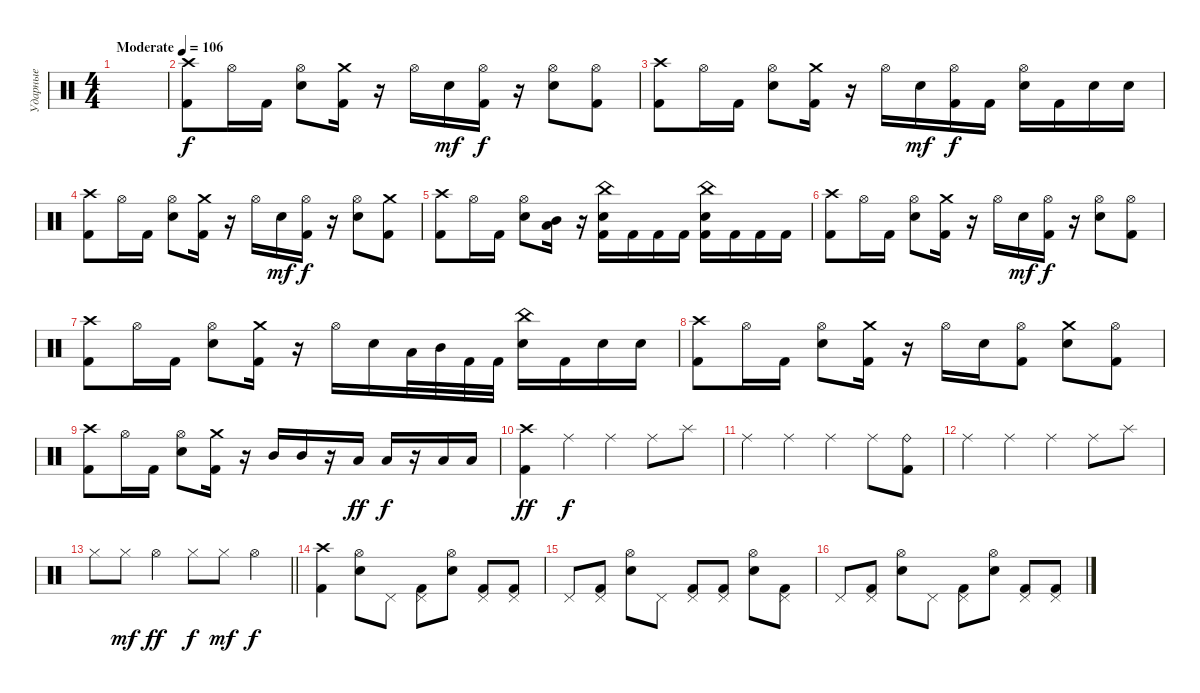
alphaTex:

\track ("Ударные" "Ударные") {instrument percussion}
\staff {score}
\articulation defaults
\ts (4 4)
\tempo (106 "Moderate")
\clef neutral
\ks c
|
("Crash high (hit)" "Kick (hit) 2").8 "Hi-Hat (open)".16 "Kick (hit) 2".16 ("Hi-Hat (open)" "Electric Snare (hit)").8 ("Crash medium (hit)" "Kick (hit) 2").16 r.16 "Hi-Hat (open)".16 "Electric Snare (hit)".16{dy mf} ("Hi-Hat (open)" "Kick (hit) 2").16{dy f} r.16 ("Hi-Hat (open)" "Electric Snare (hit)").8 ("Hi-Hat (open)" "Kick (hit) 2").8 |
("Crash high (hit)" "Kick (hit) 2").8 "Hi-Hat (open)".16 "Kick (hit) 2".16 ("Hi-Hat (open)" "Electric Snare (hit)").8 ("Crash medium (hit)" "Kick (hit) 2").16 r.16 "Hi-Hat (open)".16 "Electric Snare (hit)".16{dy mf} ("Hi-Hat (open)" "Kick (hit) 2").16{dy f} "Kick (hit) 2".16 ("Hi-Hat (open)" "Electric Snare (hit)").16 "Kick (hit) 2".16 "Electric Snare (hit)".16 "Electric Snare (hit)".16 |
("Crash high (hit)" "Kick (hit) 2").8 "Hi-Hat (open)".16 "Kick (hit) 2".16 ("Hi-Hat (open)" "Electric Snare (hit)").8 ("Crash medium (hit)" "Kick (hit) 2").16 r.16 "Hi-Hat (open)".16 "Electric Snare (hit)".16{dy mf} ("Hi-Hat (open)" "Kick (hit) 2").16{dy f} r.16 ("Hi-Hat (open)" "Electric Snare (hit)").8 ("Crash medium (hit)" "Kick (hit) 2").8 |
("Crash high (hit)" "Kick (hit) 2").8 "Hi-Hat (open)".16 "Kick (hit) 2".16 ("Hi-Hat (open)" "Electric Snare (hit)").8 ("Mid Tom (hit)" "Low Floor Tom (hit)").16 r.16 ("China (hit)" "Electric Snare (hit)" "Kick (hit) 2").16 "Kick (hit) 2".16 "Kick (hit) 2".16 "Kick (hit) 2".16 ("China (hit)" "Electric Snare (hit)" "Kick (hit) 2").16 "Kick (hit) 2".16 "Kick (hit) 2".16 "Kick (hit) 2".16 |
("Crash high (hit)" "Kick (hit) 2").8 "Hi-Hat (open)".16 "Kick (hit) 2".16 ("Hi-Hat (open)" "Electric Snare (hit)").8 ("Crash medium (hit)" "Kick (hit) 2").16 r.16 "Hi-Hat (open)".16 "Electric Snare (hit)".16{dy mf} ("Hi-Hat (open)" "Kick (hit) 2").16{dy f} r.16 ("Hi-Hat (open)" "Electric Snare (hit)").8 ("Hi-Hat (open)" "Kick (hit) 2").8 |
("Crash high (hit)" "Kick (hit) 2").8 "Hi-Hat (open)".16 "Kick (hit) 2".16 ("Hi-Hat (open)" "Electric Snare (hit)").8 ("Crash medium (hit)" "Kick (hit) 2").16 r.16 "Hi-Hat (open)".16 "Electric Snare (hit)".16 "Low Floor Tom (hit)".32 "Mid Tom (hit)".32 "Kick (hit) 2".32 "Kick (hit) 2".32 ("China (hit)" "Electric Snare (hit)").16 "Kick (hit) 2".16 "Electric Snare (hit)".16 "Electric Snare (hit)".16 |
("Crash high (hit)" "Kick (hit) 2").8 "Hi-Hat (open)".16 "Kick (hit) 2".16 ("Hi-Hat (open)" "Electric Snare (hit)").8 ("Crash medium (hit)" "Kick (hit) 2").16 r.16 "Hi-Hat (open)".16 "Electric Snare (hit)".16 ("Hi-Hat (open)" "Kick (hit) 2").8 ("Crash medium (hit)" "Electric Snare (hit)").8 ("Hi-Hat (open)" "Kick (hit) 2").8 |
("Crash high (hit)" "Kick (hit) 2").8 "Hi-Hat (open)".16 "Kick (hit) 2".16 ("Hi-Hat (open)" "Electric Snare (hit)").8 ("Crash medium (hit)" "Kick (hit) 2").16 r.16 "Mid Tom (hit)".16 "Mid Tom (hit)".16 r.16 "Low Tom (hit)".16{dy ff} "Low Tom (hit)".16{dy f} r.16 "Low Floor Tom (hit)".16 "Low Floor Tom (hit)".16 |
("Crash high (hit)" "Kick (hit) 2").4{dy ff} "Ride (middle)".4{dy f} "Ride (middle)".4 "Ride (middle)".8 "Splash (hit)".8 |
"Ride (middle)".4 "Ride (middle)".4 "Ride (middle)".4 "Ride (middle)".8 ("Ride (bell)" "Kick (hit) 2").8 |
"Ride (middle)".4 "Ride (middle)".4 "Ride (middle)".4 "Ride (middle)".8 "Splash (hit)".8 |
\barLineRight lightlight "Hi-Hat (closed)".8 "Hi-Hat (closed)".8{dy mf} "Hi-Hat (open)".4{dy ff} "Hi-Hat (closed)".8{dy f} "Hi-Hat (closed)".8{dy mf} "Hi-Hat (open)".4{dy f}
|
("Crash high (hit)" "Kick (hit) 2").4 ("Hi-Hat (open)" "Electric Snare (hit)").8 "Pedal Hi-Hat (hit)".8 ("Pedal Hi-Hat (hit)" "Kick (hit) 2").8 ("Hi-Hat (open)" "Electric Snare (hit)").8 ("Pedal Hi-Hat (hit)" "Kick (hit) 2").8 ("Pedal Hi-Hat (hit)" "Kick (hit) 2").8 |
"Pedal Hi-Hat (hit)".8 ("Pedal Hi-Hat (hit)" "Kick (hit) 2").8 ("Hi-Hat (open)" "Electric Snare (hit)").8 "Pedal Hi-Hat (hit)".8 ("Pedal Hi-Hat (hit)" "Kick (hit) 2").8 ("Pedal Hi-Hat (hit)" "Kick (hit) 2").8 ("Hi-Hat (open)" "Electric Snare (hit)").8 ("Pedal Hi-Hat (hit)" "Kick (hit) 2").8 |
"Pedal Hi-Hat (hit)".8 ("Pedal Hi-Hat (hit)" "Kick (hit) 2").8 ("Hi-Hat (open)" "Electric Snare (hit)").8 "Pedal Hi-Hat (hit)".8 ("Pedal Hi-Hat (hit)" "Kick (hit) 2").8 ("Hi-Hat (open)" "Electric Snare (hit)").8 ("Pedal Hi-Hat (hit)" "Kick (hit) 2").8 ("Pedal Hi-Hat (hit)" "Kick (hit) 2").8
